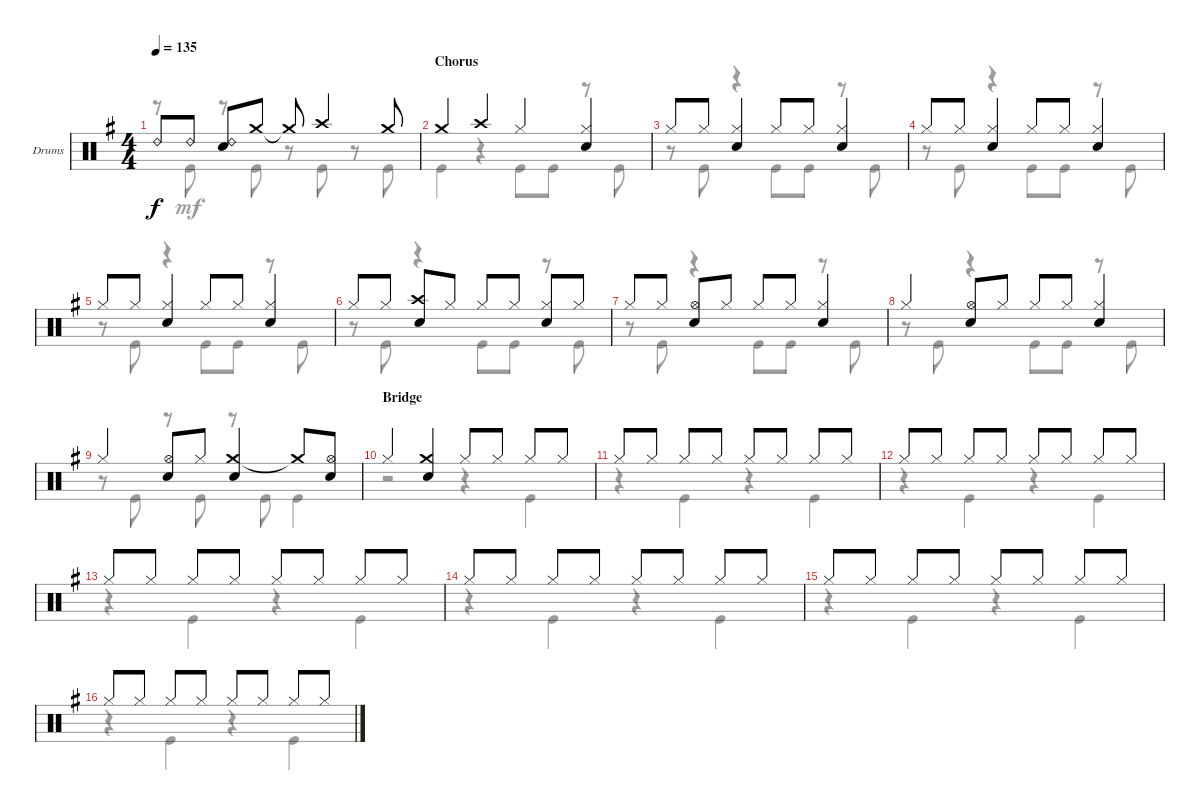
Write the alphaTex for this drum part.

\defaultSystemsLayout 4
\bracketExtendMode groupsimilarinstruments
\firstSystemTrackNameOrientation horizontal
\otherSystemsTrackNameOrientation horizontal
\track ("Drumkit" "Drums") {instrument percussion}
\staff {score}
\articulation defaults
\voice
\ts (4 4)
\tempo 135
\clef neutral
\ks g "Ride (bell) 2".8{dy f} "Ride (bell) 2".8
("Ride (bell) 2" "Snare (hit) 2").8 "Crash medium (hit)".8 "Crash medium (hit)"{t}.8 "Crash high (hit)".4 "Crash medium (hit)".8 |
\section ("" "Chorus")
"Crash medium (hit)".4 "Crash high (hit)".4 "Hi-Hat (closed)".4 ("Hi-Hat (closed)" "Snare (hit) 2").4 |
"Hi-Hat (closed)".8 "Hi-Hat (closed)".8 ("Hi-Hat (closed)" "Snare (hit) 2").4 "Hi-Hat (closed)".8 "Hi-Hat (closed)".8 ("Hi-Hat (closed)" "Snare (hit) 2").4 |
"Hi-Hat (closed)".8 "Hi-Hat (closed)".8 ("Hi-Hat (closed)" "Snare (hit) 2").4 "Hi-Hat (closed)".8 "Hi-Hat (closed)".8 ("Hi-Hat (closed)" "Snare (hit) 2").4 |
"Hi-Hat (closed)".8 "Hi-Hat (closed)".8 ("Hi-Hat (closed)" "Snare (hit) 2").4 "Hi-Hat (closed)".8 "Hi-Hat (closed)".8 ("Hi-Hat (closed)" "Snare (hit) 2").4 |
"Hi-Hat (closed)".8 "Hi-Hat (closed)".8 ("Crash high (hit)" "Snare (hit) 2").8 "Hi-Hat (closed)".8 "Hi-Hat (closed)".8 "Hi-Hat (closed)".8 ("Hi-Hat (closed)" "Snare (hit) 2").8 "Hi-Hat (closed)".8 |
"Hi-Hat (closed)".8 "Hi-Hat (closed)".8 ("Hi-Hat (open)" "Snare (hit) 2").8 "Hi-Hat (closed)".8 "Hi-Hat (closed)".8 "Hi-Hat (closed)".8 ("Hi-Hat (closed)" "Snare (hit) 2").4 |
"Hi-Hat (closed)".4 ("Hi-Hat (open)" "Snare (hit) 2").8 "Hi-Hat (closed)".8 "Hi-Hat (closed)".8 "Hi-Hat (closed)".8 ("Hi-Hat (closed)" "Snare (hit) 2").4 |
"Hi-Hat (closed)".4 ("Hi-Hat (open)" "Snare (hit) 2").8 "Hi-Hat (closed)".8 ("Crash medium (hit)" "Snare (hit) 2").4 "Crash medium (hit)"{t}.8 ("Hi-Hat (open)" "Snare (hit) 2").8 |
\section ("" "Bridge")
"Hi-Hat (closed)".4 ("Crash medium (hit)" "Snare (hit) 2").4 "Hi-Hat (closed)".8 "Hi-Hat (closed)".8 "Hi-Hat (closed)".8 "Hi-Hat (closed)".8 |
"Hi-Hat (closed)".8 "Hi-Hat (closed)".8 "Hi-Hat (closed)".8 "Hi-Hat (closed)".8 "Hi-Hat (closed)".8 "Hi-Hat (closed)".8 "Hi-Hat (closed)".8 "Hi-Hat (closed)".8 |
"Hi-Hat (closed)".8 "Hi-Hat (closed)".8 "Hi-Hat (closed)".8 "Hi-Hat (closed)".8 "Hi-Hat (closed)".8 "Hi-Hat (closed)".8 "Hi-Hat (closed)".8 "Hi-Hat (closed)".8 |
"Hi-Hat (closed)".8 "Hi-Hat (closed)".8 "Hi-Hat (closed)".8 "Hi-Hat (closed)".8 "Hi-Hat (closed)".8 "Hi-Hat (closed)".8 "Hi-Hat (closed)".8 "Hi-Hat (closed)".8 |
"Hi-Hat (closed)".8 "Hi-Hat (closed)".8 "Hi-Hat (closed)".8 "Hi-Hat (closed)".8 "Hi-Hat (closed)".8 "Hi-Hat (closed)".8 "Hi-Hat (closed)".8 "Hi-Hat (closed)".8 |
"Hi-Hat (closed)".8 "Hi-Hat (closed)".8 "Hi-Hat (closed)".8 "Hi-Hat (closed)".8 "Hi-Hat (closed)".8 "Hi-Hat (closed)".8 "Hi-Hat (closed)".8 "Hi-Hat (closed)".8 |
"Hi-Hat (closed)".8 "Hi-Hat (closed)".8 "Hi-Hat (closed)".8 "Hi-Hat (closed)".8 "Hi-Hat (closed)".8 "Hi-Hat (closed)".8 "Hi-Hat (closed)".8 "Hi-Hat (closed)".8
\voice
\clef neutral
\ottava regular
\simile none
\ks g
r.8{dy mf} "Kick (hit)".8 r.8 "Kick (hit)".8 r.8 "Kick (hit)".8 r.8 "Kick (hit)".8 |
"Kick (hit)".4 r.4 "Kick (hit)".8 "Kick (hit)".8 r.8 "Kick (hit)".8 |
r.8 "Kick (hit)".8 r.4 "Kick (hit)".8 "Kick (hit)".8 r.8 "Kick (hit)".8 |
r.8 "Kick (hit)".8 r.4 "Kick (hit)".8 "Kick (hit)".8 r.8 "Kick (hit)".8 |
r.8 "Kick (hit)".8 r.4 "Kick (hit)".8 "Kick (hit)".8 r.8 "Kick (hit)".8 |
r.8 "Kick (hit)".8 r.4 "Kick (hit)".8 "Kick (hit)".8 r.8 "Kick (hit)".8 |
r.8 "Kick (hit)".8 r.4 "Kick (hit)".8 "Kick (hit)".8 r.8 "Kick (hit)".8 |
r.8 "Kick (hit)".8 r.4 "Kick (hit)".8 "Kick (hit)".8 r.8 "Kick (hit)".8 |
r.8 "Kick (hit)".8 r.8 "Kick (hit)".8 r.8 "Kick (hit)".8 "Kick (hit)".4 |
r.2 r.4 "Kick (hit)".4 |
r.4 "Kick (hit)".4 r.4 "Kick (hit)".4 |
r.4 "Kick (hit)".4 r.4 "Kick (hit)".4 |
r.4 "Kick (hit)".4 r.4 "Kick (hit)".4 |
r.4 "Kick (hit)".4 r.4 "Kick (hit)".4 |
r.4 "Kick (hit)".4 r.4 "Kick (hit)".4 |
r.4 "Kick (hit)".4 r.4 "Kick (hit)".4
